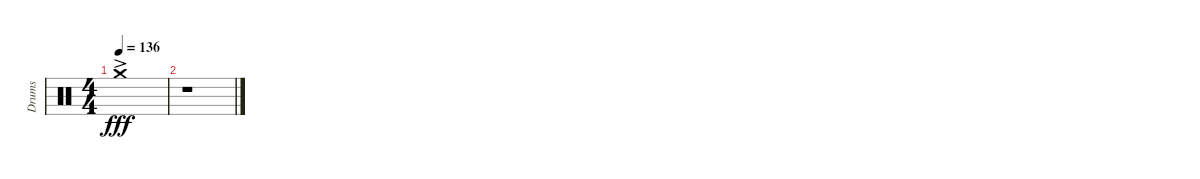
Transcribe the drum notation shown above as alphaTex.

\track ("Drums" "Drums") {instrument percussion}
\staff {score}
\articulation defaults
\ts (4 4)
\tempo 136
\clef neutral
\ks c "Crash medium (hit)"{ac}.1{dy fff}
|
r.1
